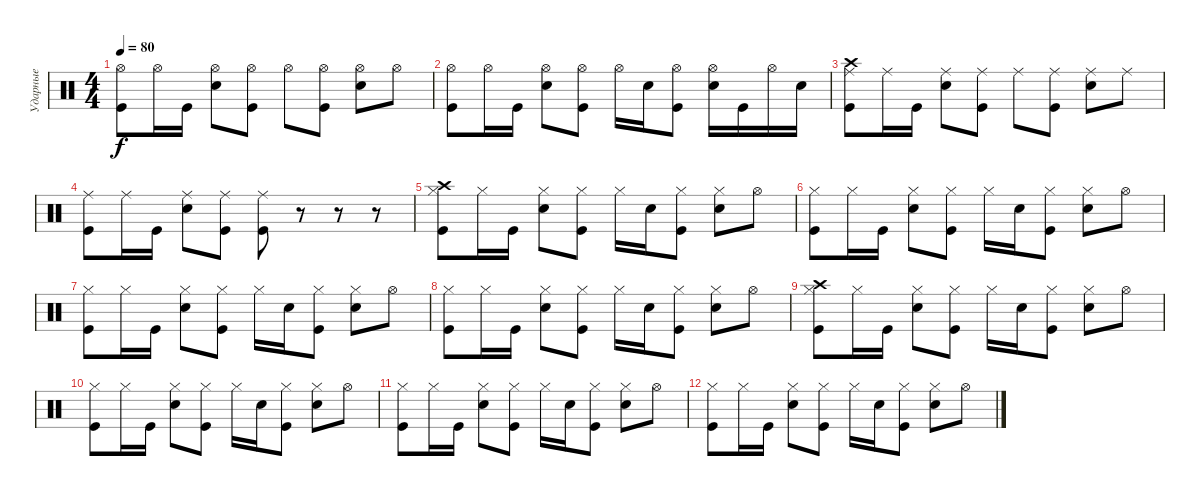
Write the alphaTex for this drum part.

\track ("Ударные" "Ударные") {instrument percussion}
\staff {score}
\articulation defaults
\ts (4 4)
\tempo 80
\clef neutral
\ks c
("Hi-Hat (open)" "Kick (hit)").8{dy f} "Hi-Hat (open)".16 "Kick (hit)".16 ("Hi-Hat (open)" "Electric Snare (hit)").8 ("Hi-Hat (open)" "Kick (hit)").8 "Hi-Hat (open)".8 ("Hi-Hat (open)" "Kick (hit)").8 ("Hi-Hat (open)" "Electric Snare (hit)").8 "Hi-Hat (open)".8 |
("Hi-Hat (open)" "Kick (hit)").8 "Hi-Hat (open)".16 "Kick (hit)".16 ("Hi-Hat (open)" "Electric Snare (hit)").8 ("Hi-Hat (open)" "Kick (hit)").8 "Hi-Hat (open)".16 "Electric Snare (hit)".16 ("Hi-Hat (open)" "Kick (hit)").8 ("Hi-Hat (open)" "Electric Snare (hit)").16 "Kick (hit)".16 "Hi-Hat (open)".16 "Electric Snare (hit)".16 |
("Crash high (hit)" "Ride (middle)" "Kick (hit)").8 "Ride (middle)".16 "Kick (hit)".16 ("Ride (middle)" "Electric Snare (hit)").8 ("Ride (middle)" "Kick (hit)").8 "Ride (middle)".8 ("Ride (middle)" "Kick (hit)").8 ("Ride (middle)" "Electric Snare (hit)").8 "Ride (middle)".8 |
("Ride (middle)" "Kick (hit)").8 "Ride (middle)".16 "Kick (hit)".16 ("Ride (middle)" "Electric Snare (hit)").8 ("Ride (middle)" "Kick (hit)").8 ("Ride (middle)" "Kick (hit)").8 r.8 r.8 r.8 |
("Crash high (hit)" "Hi-Hat (closed)" "Kick (hit)").8{balance 8} "Hi-Hat (closed)".16 "Kick (hit)".16 ("Hi-Hat (closed)" "Electric Snare (hit)").8 ("Hi-Hat (closed)" "Kick (hit)").8 "Hi-Hat (closed)".16 "Electric Snare (hit)".16 ("Hi-Hat (closed)" "Kick (hit)").8 ("Hi-Hat (closed)" "Electric Snare (hit)").8 "Hi-Hat (open)".8 |
("Hi-Hat (closed)" "Kick (hit)").8 "Hi-Hat (closed)".16 "Kick (hit)".16 ("Hi-Hat (closed)" "Electric Snare (hit)").8 ("Hi-Hat (closed)" "Kick (hit)").8 "Hi-Hat (closed)".16 "Electric Snare (hit)".16 ("Hi-Hat (closed)" "Kick (hit)").8 ("Hi-Hat (closed)" "Electric Snare (hit)").8 "Hi-Hat (open)".8 |
("Hi-Hat (closed)" "Kick (hit)").8 "Hi-Hat (closed)".16 "Kick (hit)".16 ("Hi-Hat (closed)" "Electric Snare (hit)").8 ("Hi-Hat (closed)" "Kick (hit)").8 "Hi-Hat (closed)".16 "Electric Snare (hit)".16 ("Hi-Hat (closed)" "Kick (hit)").8 ("Hi-Hat (closed)" "Electric Snare (hit)").8 "Hi-Hat (open)".8 |
("Hi-Hat (closed)" "Kick (hit)").8 "Hi-Hat (closed)".16 "Kick (hit)".16 ("Hi-Hat (closed)" "Electric Snare (hit)").8 ("Hi-Hat (closed)" "Kick (hit)").8 "Hi-Hat (closed)".16 "Electric Snare (hit)".16 ("Hi-Hat (closed)" "Kick (hit)").8 ("Hi-Hat (closed)" "Electric Snare (hit)").8 "Hi-Hat (open)".8 |
("Crash high (hit)" "Hi-Hat (closed)" "Kick (hit)").8{balance 8} "Hi-Hat (closed)".16 "Kick (hit)".16 ("Hi-Hat (closed)" "Electric Snare (hit)").8 ("Hi-Hat (closed)" "Kick (hit)").8 "Hi-Hat (closed)".16 "Electric Snare (hit)".16 ("Hi-Hat (closed)" "Kick (hit)").8 ("Hi-Hat (closed)" "Electric Snare (hit)").8 "Hi-Hat (open)".8 |
("Hi-Hat (closed)" "Kick (hit)").8 "Hi-Hat (closed)".16 "Kick (hit)".16 ("Hi-Hat (closed)" "Electric Snare (hit)").8 ("Hi-Hat (closed)" "Kick (hit)").8 "Hi-Hat (closed)".16 "Electric Snare (hit)".16 ("Hi-Hat (closed)" "Kick (hit)").8 ("Hi-Hat (closed)" "Electric Snare (hit)").8 "Hi-Hat (open)".8 |
("Hi-Hat (closed)" "Kick (hit)").8 "Hi-Hat (closed)".16 "Kick (hit)".16 ("Hi-Hat (closed)" "Electric Snare (hit)").8 ("Hi-Hat (closed)" "Kick (hit)").8 "Hi-Hat (closed)".16 "Electric Snare (hit)".16 ("Hi-Hat (closed)" "Kick (hit)").8 ("Hi-Hat (closed)" "Electric Snare (hit)").8 "Hi-Hat (open)".8 |
("Hi-Hat (closed)" "Kick (hit)").8 "Hi-Hat (closed)".16 "Kick (hit)".16 ("Hi-Hat (closed)" "Electric Snare (hit)").8 ("Hi-Hat (closed)" "Kick (hit)").8 "Hi-Hat (closed)".16 "Electric Snare (hit)".16 ("Hi-Hat (closed)" "Kick (hit)").8 ("Hi-Hat (closed)" "Electric Snare (hit)").8 "Hi-Hat (open)".8
